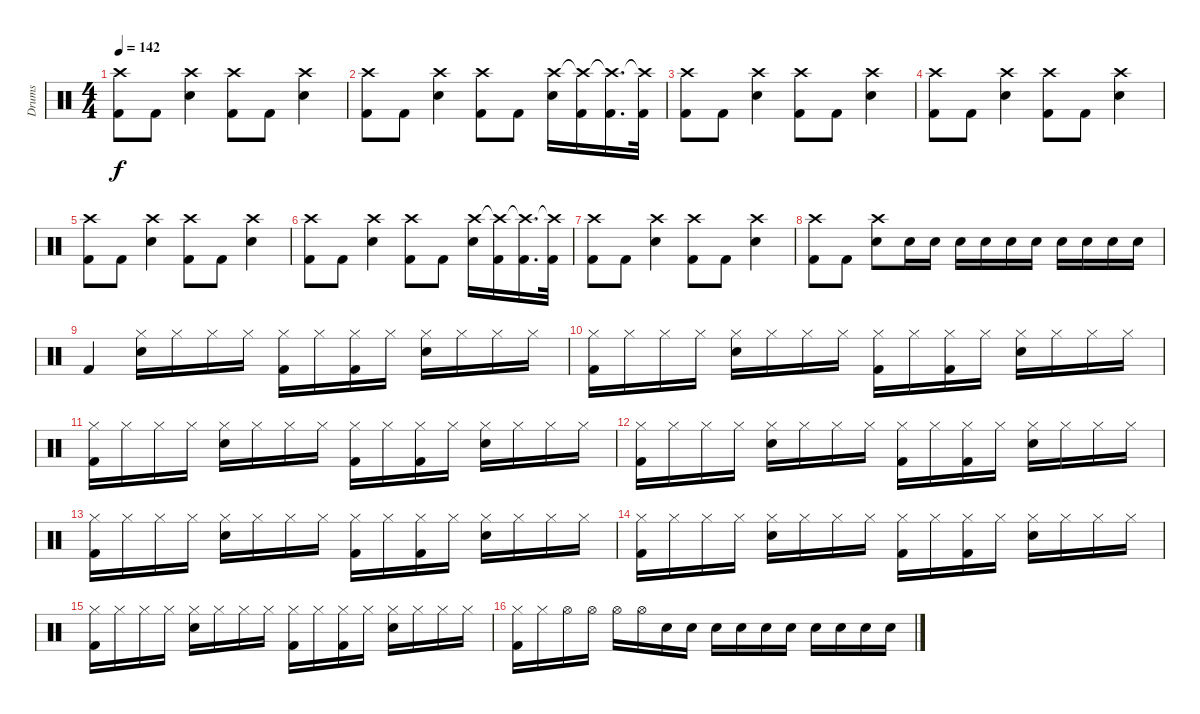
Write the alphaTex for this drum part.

\track ("Drums" "Drums") {instrument percussion}
\staff {score}
\articulation defaults
\ts (4 4)
\tempo 142
\clef neutral
\ks c
("Crash high (hit)" "Kick (hit) 2").8{dy f} "Kick (hit) 2".8 ("Crash high (hit)" "Snare (hit) 2").4 ("Crash high (hit)" "Kick (hit) 2").8 "Kick (hit) 2".8 ("Crash high (hit)" "Snare (hit) 2").4 |
("Crash high (hit)" "Kick (hit) 2").8 "Kick (hit) 2".8 ("Crash high (hit)" "Snare (hit) 2").4 ("Crash high (hit)" "Kick (hit) 2").8 "Kick (hit) 2".8 ("Crash high (hit)" "Snare (hit) 2").16 ("Crash high (hit)"{t} "Kick (hit) 2").16 ("Crash high (hit)"{t} "Kick (hit) 2").16{d} ("Crash high (hit)"{t} "Kick (hit) 2").32 |
("Crash high (hit)" "Kick (hit) 2").8 "Kick (hit) 2".8 ("Crash high (hit)" "Snare (hit) 2").4 ("Crash high (hit)" "Kick (hit) 2").8 "Kick (hit) 2".8 ("Crash high (hit)" "Snare (hit) 2").4 |
("Crash high (hit)" "Kick (hit) 2").8 "Kick (hit) 2".8 ("Crash high (hit)" "Snare (hit) 2").4 ("Crash high (hit)" "Kick (hit) 2").8 "Kick (hit) 2".8 ("Crash high (hit)" "Snare (hit) 2").4 |
("Crash high (hit)" "Kick (hit) 2").8 "Kick (hit) 2".8 ("Crash high (hit)" "Snare (hit) 2").4 ("Crash high (hit)" "Kick (hit) 2").8 "Kick (hit) 2".8 ("Crash high (hit)" "Snare (hit) 2").4 |
("Crash high (hit)" "Kick (hit) 2").8 "Kick (hit) 2".8 ("Crash high (hit)" "Snare (hit) 2").4 ("Crash high (hit)" "Kick (hit) 2").8 "Kick (hit) 2".8 ("Crash high (hit)" "Snare (hit) 2").16 ("Crash high (hit)"{t} "Kick (hit) 2").16 ("Crash high (hit)"{t} "Kick (hit) 2").16{d} ("Crash high (hit)"{t} "Kick (hit) 2").32 |
("Crash high (hit)" "Kick (hit) 2").8 "Kick (hit) 2".8 ("Crash high (hit)" "Snare (hit) 2").4 ("Crash high (hit)" "Kick (hit) 2").8 "Kick (hit) 2".8 ("Crash high (hit)" "Snare (hit) 2").4 |
("Crash high (hit)" "Kick (hit) 2").8 "Kick (hit) 2".8 ("Crash high (hit)" "Snare (hit) 2").8 "Snare (hit) 2".16 "Snare (hit) 2".16 "Snare (hit) 2".16 "Snare (hit) 2".16 "Snare (hit) 2".16 "Snare (hit) 2".16 "Snare (hit) 2".16 "Snare (hit) 2".16 "Snare (hit) 2".16 "Snare (hit) 2".16 |
"Kick (hit) 2".4 ("Hi-Hat (closed)" "Snare (hit) 2").16 "Hi-Hat (closed)".16 "Hi-Hat (closed)".16 "Hi-Hat (closed)".16 ("Hi-Hat (closed)" "Kick (hit) 2").16 "Hi-Hat (closed)".16 ("Hi-Hat (closed)" "Kick (hit) 2").16 "Hi-Hat (closed)".16 ("Hi-Hat (closed)" "Snare (hit) 2").16 "Hi-Hat (closed)".16 "Hi-Hat (closed)".16 "Hi-Hat (closed)".16 |
("Hi-Hat (closed)" "Kick (hit) 2").16 "Hi-Hat (closed)".16 "Hi-Hat (closed)".16 "Hi-Hat (closed)".16 ("Hi-Hat (closed)" "Snare (hit) 2").16 "Hi-Hat (closed)".16 "Hi-Hat (closed)".16 "Hi-Hat (closed)".16 ("Hi-Hat (closed)" "Kick (hit) 2").16 "Hi-Hat (closed)".16 ("Hi-Hat (closed)" "Kick (hit) 2").16 "Hi-Hat (closed)".16 ("Hi-Hat (closed)" "Snare (hit) 2").16 "Hi-Hat (closed)".16 "Hi-Hat (closed)".16 "Hi-Hat (closed)".16 |
("Hi-Hat (closed)" "Kick (hit) 2").16 "Hi-Hat (closed)".16 "Hi-Hat (closed)".16 "Hi-Hat (closed)".16 ("Hi-Hat (closed)" "Snare (hit) 2").16 "Hi-Hat (closed)".16 "Hi-Hat (closed)".16 "Hi-Hat (closed)".16 ("Hi-Hat (closed)" "Kick (hit) 2").16 "Hi-Hat (closed)".16 ("Hi-Hat (closed)" "Kick (hit) 2").16 "Hi-Hat (closed)".16 ("Hi-Hat (closed)" "Snare (hit) 2").16 "Hi-Hat (closed)".16 "Hi-Hat (closed)".16 "Hi-Hat (closed)".16 |
("Hi-Hat (closed)" "Kick (hit) 2").16 "Hi-Hat (closed)".16 "Hi-Hat (closed)".16 "Hi-Hat (closed)".16 ("Hi-Hat (closed)" "Snare (hit) 2").16 "Hi-Hat (closed)".16 "Hi-Hat (closed)".16 "Hi-Hat (closed)".16 ("Hi-Hat (closed)" "Kick (hit) 2").16 "Hi-Hat (closed)".16 ("Hi-Hat (closed)" "Kick (hit) 2").16 "Hi-Hat (closed)".16 ("Hi-Hat (closed)" "Snare (hit) 2").16 "Hi-Hat (closed)".16 "Hi-Hat (closed)".16 "Hi-Hat (closed)".16 |
("Hi-Hat (closed)" "Kick (hit) 2").16 "Hi-Hat (closed)".16 "Hi-Hat (closed)".16 "Hi-Hat (closed)".16 ("Hi-Hat (closed)" "Snare (hit) 2").16 "Hi-Hat (closed)".16 "Hi-Hat (closed)".16 "Hi-Hat (closed)".16 ("Hi-Hat (closed)" "Kick (hit) 2").16 "Hi-Hat (closed)".16 ("Hi-Hat (closed)" "Kick (hit) 2").16 "Hi-Hat (closed)".16 ("Hi-Hat (closed)" "Snare (hit) 2").16 "Hi-Hat (closed)".16 "Hi-Hat (closed)".16 "Hi-Hat (closed)".16 |
("Hi-Hat (closed)" "Kick (hit) 2").16 "Hi-Hat (closed)".16 "Hi-Hat (closed)".16 "Hi-Hat (closed)".16 ("Hi-Hat (closed)" "Snare (hit) 2").16 "Hi-Hat (closed)".16 "Hi-Hat (closed)".16 "Hi-Hat (closed)".16 ("Hi-Hat (closed)" "Kick (hit) 2").16 "Hi-Hat (closed)".16 ("Hi-Hat (closed)" "Kick (hit) 2").16 "Hi-Hat (closed)".16 ("Hi-Hat (closed)" "Snare (hit) 2").16 "Hi-Hat (closed)".16 "Hi-Hat (closed)".16 "Hi-Hat (closed)".16 |
("Hi-Hat (closed)" "Kick (hit) 2").16 "Hi-Hat (closed)".16 "Hi-Hat (closed)".16 "Hi-Hat (closed)".16 ("Hi-Hat (closed)" "Snare (hit) 2").16 "Hi-Hat (closed)".16 "Hi-Hat (closed)".16 "Hi-Hat (closed)".16 ("Hi-Hat (closed)" "Kick (hit) 2").16 "Hi-Hat (closed)".16 ("Hi-Hat (closed)" "Kick (hit) 2").16 "Hi-Hat (closed)".16 ("Hi-Hat (closed)" "Snare (hit) 2").16 "Hi-Hat (closed)".16 "Hi-Hat (closed)".16 "Hi-Hat (closed)".16 |
("Hi-Hat (closed)" "Kick (hit) 2").16 "Hi-Hat (closed)".16 "Hi-Hat (open)".16 "Hi-Hat (open)".16 "Hi-Hat (open)".16 "Hi-Hat (open)".16 "Snare (hit) 2".16 "Snare (hit) 2".16 "Snare (hit) 2".16 "Snare (hit) 2".16 "Snare (hit) 2".16 "Snare (hit) 2".16 "Snare (hit) 2".16 "Snare (hit) 2".16 "Snare (hit) 2".16 "Snare (hit) 2".16
